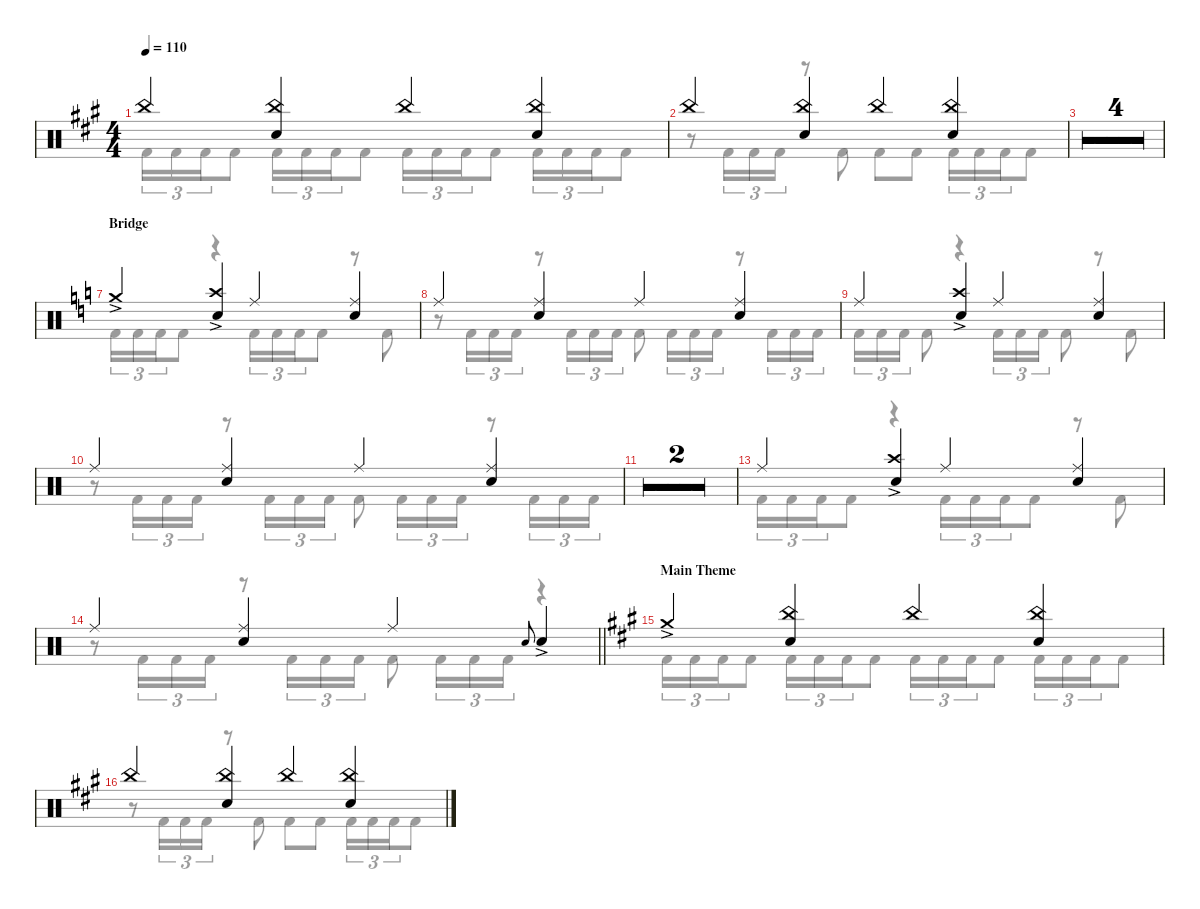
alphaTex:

\defaultSystemsLayout 4
\hideDynamics
\bracketExtendMode nobrackets
\singleTrackTrackNamePolicy hidden
\multiTrackTrackNamePolicy hidden
\firstSystemTrackNameMode fullname
\firstSystemTrackNameOrientation horizontal
\otherSystemsTrackNameOrientation horizontal
\track ("Drums" "Drums") {multiBarRest instrument percussion}
\staff {score}
\articulation defaults
\voice
\ts (4 4)
\tempo 110
\clef neutral
\ks f#minor "China (hit)"{acc forcenatural}.4{dy mf}
("China (hit)"{acc forcenatural} "Snare (hit) 2"{acc forcenatural}).4 "China (hit)"{acc forcenatural}.4 ("China (hit)"{acc forcenatural} "Snare (hit) 2"{acc forcenatural}).4 |
"China (hit)"{acc forcenatural}.4 ("China (hit)"{acc forcenatural} "Snare (hit) 2"{acc forcenatural}).4 "China (hit)"{acc forcenatural}.4 ("China (hit)"{acc forcenatural} "Snare (hit) 2"{acc forcenatural}).4 |
\simile firstofdouble
|
\simile secondofdouble
|
\simile firstofdouble
|
\rc 2
\simile secondofdouble
\barLineRight lightlight
|
\section ("" "Bridge")
\simile none
\ks aminor "Crash medium (hit)"{ac}.4
("Crash high (hit)"{ac} "Snare (hit) 2").4 "Ride (middle)".4 ("Ride (middle)" "Snare (hit) 2").4 |
"Ride (middle)".4 ("Ride (middle)" "Snare (hit) 2").4 "Ride (middle)".4{beam merge} ("Ride (middle)" "Snare (hit) 2").4{beam merge} |
"Ride (middle)".4 ("Crash high (hit)"{ac} "Snare (hit) 2").4 "Ride (middle)".4 ("Ride (middle)" "Snare (hit) 2").4 |
"Ride (middle)".4 ("Ride (middle)" "Snare (hit) 2").4 "Ride (middle)".4 ("Ride (middle)" "Snare (hit) 2").4 |
\simile firstofdouble
|
\simile secondofdouble
|
\simile none "Ride (middle)".4
("Crash high (hit)"{ac} "Snare (hit) 2").4 "Ride (middle)".4 ("Ride (middle)" "Snare (hit) 2").4 |
\barLineRight lightlight "Ride (middle)".4
("Ride (middle)" "Snare (hit) 2").4 "Ride (middle)".4{beam merge} "Snare (hit) 2".8{gr onbeat beam merge} "Snare (hit) 2"{ac}.4{beam merge} |
\section ("" "Main Theme")
\ks a "Crash medium (hit)"{ac acc forcenatural}.4
("China (hit)"{acc forcenatural} "Snare (hit) 2"{acc forcenatural}).4 "China (hit)"{acc forcenatural}.4 ("China (hit)"{acc forcenatural} "Snare (hit) 2"{acc forcenatural}).4 |
"China (hit)"{acc forcenatural}.4 ("China (hit)"{acc forcenatural} "Snare (hit) 2"{acc forcenatural}).4 "China (hit)"{acc forcenatural}.4 ("China (hit)"{acc forcenatural} "Snare (hit) 2"{acc forcenatural}).4
\voice
\clef neutral
\ottava regular
\simile none
\ks f#minor "Kick (hit) 2"{acc forcenatural}.16{tu (3 2) dy mf} "Kick (hit) 2"{acc forcenatural}.16{tu (3 2)} "Kick (hit) 2"{acc forcenatural}.16{tu (3 2) beam merge} "Kick (hit) 2"{acc forcenatural}.8 "Kick (hit) 2"{acc forcenatural}.16{tu (3 2)} "Kick (hit) 2"{acc forcenatural}.16{tu (3 2)} "Kick (hit) 2"{acc forcenatural}.16{tu (3 2) beam merge} "Kick (hit) 2"{acc forcenatural}.8 "Kick (hit) 2"{acc forcenatural}.16{tu (3 2)} "Kick (hit) 2"{acc forcenatural}.16{tu (3 2)} "Kick (hit) 2"{acc forcenatural}.16{tu (3 2) beam merge} "Kick (hit) 2"{acc forcenatural}.8 "Kick (hit) 2"{acc forcenatural}.16{tu (3 2)} "Kick (hit) 2"{acc forcenatural}.16{tu (3 2)} "Kick (hit) 2"{acc forcenatural}.16{tu (3 2) beam merge} "Kick (hit) 2"{acc forcenatural}.8
|
r.8 "Kick (hit) 2"{acc forcenatural}.16{tu (3 2)} "Kick (hit) 2"{acc forcenatural}.16{tu (3 2)} "Kick (hit) 2"{acc forcenatural}.16{tu (3 2)} r.8 "Kick (hit) 2"{acc forcenatural}.8 "Kick (hit) 2"{acc forcenatural}.8 "Kick (hit) 2"{acc forcenatural}.8 "Kick (hit) 2"{acc forcenatural}.16{tu (3 2)} "Kick (hit) 2"{acc forcenatural}.16{tu (3 2)} "Kick (hit) 2"{acc forcenatural}.16{tu (3 2) beam merge} "Kick (hit) 2"{acc forcenatural}.8 |
\simile firstofdouble
|
\simile secondofdouble
|
\simile firstofdouble
|
\simile secondofdouble
\barLineRight lightlight
|
\simile none
\ks aminor "Kick (hit) 2".16{tu (3 2)} "Kick (hit) 2".16{tu (3 2)} "Kick (hit) 2".16{tu (3 2) beam merge} "Kick (hit) 2".8
r.4 "Kick (hit) 2".16{tu (3 2)} "Kick (hit) 2".16{tu (3 2)} "Kick (hit) 2".16{tu (3 2) beam merge} "Kick (hit) 2".8 r.8 "Kick (hit) 2".8 |
r.8 "Kick (hit) 2".16{tu (3 2)} "Kick (hit) 2".16{tu (3 2)} "Kick (hit) 2".16{tu (3 2)} r.8 "Kick (hit) 2".16{tu (3 2)} "Kick (hit) 2".16{tu (3 2)} "Kick (hit) 2".16{tu (3 2)} "Kick (hit) 2".8 "Kick (hit) 2".16{tu (3 2)} "Kick (hit) 2".16{tu (3 2)} "Kick (hit) 2".16{tu (3 2)} r.8 "Kick (hit) 2".16{tu (3 2)} "Kick (hit) 2".16{tu (3 2)} "Kick (hit) 2".16{tu (3 2)} |
"Kick (hit) 2".16{tu (3 2)} "Kick (hit) 2".16{tu (3 2)} "Kick (hit) 2".16{tu (3 2)} "Kick (hit) 2".8 r.4 "Kick (hit) 2".16{tu (3 2)} "Kick (hit) 2".16{tu (3 2)} "Kick (hit) 2".16{tu (3 2)} "Kick (hit) 2".8 r.8 "Kick (hit) 2".8 |
r.8 "Kick (hit) 2".16{tu (3 2)} "Kick (hit) 2".16{tu (3 2)} "Kick (hit) 2".16{tu (3 2)} r.8 "Kick (hit) 2".16{tu (3 2)} "Kick (hit) 2".16{tu (3 2)} "Kick (hit) 2".16{tu (3 2)} "Kick (hit) 2".8 "Kick (hit) 2".16{tu (3 2)} "Kick (hit) 2".16{tu (3 2)} "Kick (hit) 2".16{tu (3 2)} r.8 "Kick (hit) 2".16{tu (3 2)} "Kick (hit) 2".16{tu (3 2)} "Kick (hit) 2".16{tu (3 2)} |
\simile firstofdouble
|
\simile secondofdouble
|
\simile none "Kick (hit) 2".16{tu (3 2)} "Kick (hit) 2".16{tu (3 2)} "Kick (hit) 2".16{tu (3 2) beam merge} "Kick (hit) 2".8
r.4 "Kick (hit) 2".16{tu (3 2)} "Kick (hit) 2".16{tu (3 2)} "Kick (hit) 2".16{tu (3 2) beam merge} "Kick (hit) 2".8 r.8 "Kick (hit) 2".8 |
\barLineRight lightlight
r.8 "Kick (hit) 2".16{tu (3 2)} "Kick (hit) 2".16{tu (3 2)} "Kick (hit) 2".16{tu (3 2)} r.8 "Kick (hit) 2".16{tu (3 2)} "Kick (hit) 2".16{tu (3 2)} "Kick (hit) 2".16{tu (3 2)} "Kick (hit) 2".8 "Kick (hit) 2".16{tu (3 2)} "Kick (hit) 2".16{tu (3 2)} "Kick (hit) 2".16{tu (3 2)} r.4 |
\ks a "Kick (hit) 2"{acc forcenatural}.16{tu (3 2)} "Kick (hit) 2"{acc forcenatural}.16{tu (3 2)} "Kick (hit) 2"{acc forcenatural}.16{tu (3 2) beam merge} "Kick (hit) 2"{acc forcenatural}.8 "Kick (hit) 2"{acc forcenatural}.16{tu (3 2)} "Kick (hit) 2"{acc forcenatural}.16{tu (3 2)} "Kick (hit) 2"{acc forcenatural}.16{tu (3 2) beam merge} "Kick (hit) 2"{acc forcenatural}.8 "Kick (hit) 2"{acc forcenatural}.16{tu (3 2)} "Kick (hit) 2"{acc forcenatural}.16{tu (3 2)} "Kick (hit) 2"{acc forcenatural}.16{tu (3 2) beam merge} "Kick (hit) 2"{acc forcenatural}.8 "Kick (hit) 2"{acc forcenatural}.16{tu (3 2)} "Kick (hit) 2"{acc forcenatural}.16{tu (3 2)} "Kick (hit) 2"{acc forcenatural}.16{tu (3 2) beam merge} "Kick (hit) 2"{acc forcenatural}.8
|
r.8 "Kick (hit) 2"{acc forcenatural}.16{tu (3 2)} "Kick (hit) 2"{acc forcenatural}.16{tu (3 2)} "Kick (hit) 2"{acc forcenatural}.16{tu (3 2)} r.8 "Kick (hit) 2"{acc forcenatural}.8 "Kick (hit) 2"{acc forcenatural}.8 "Kick (hit) 2"{acc forcenatural}.8 "Kick (hit) 2"{acc forcenatural}.16{tu (3 2)} "Kick (hit) 2"{acc forcenatural}.16{tu (3 2)} "Kick (hit) 2"{acc forcenatural}.16{tu (3 2) beam merge} "Kick (hit) 2"{acc forcenatural}.8
